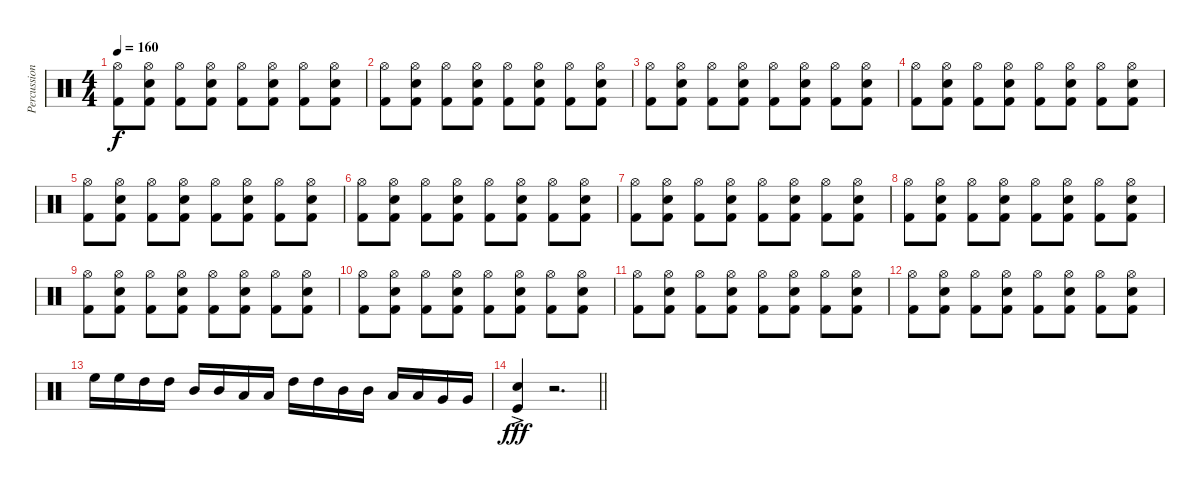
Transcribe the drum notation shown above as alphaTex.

\track ("Percussioni" "Percussion") {instrument percussion}
\staff {score}
\articulation defaults
\ts (4 4)
\tempo 160
\clef neutral
\ks c
("Hi-Hat (open)" "Kick (hit) 2").8{dy f} ("Hi-Hat (open)" "Snare (hit) 2" "Kick (hit) 2").8 ("Hi-Hat (open)" "Kick (hit) 2").8 ("Hi-Hat (open)" "Snare (hit) 2" "Kick (hit) 2").8 ("Hi-Hat (open)" "Kick (hit) 2").8 ("Hi-Hat (open)" "Snare (hit) 2" "Kick (hit) 2").8 ("Hi-Hat (open)" "Kick (hit) 2").8 ("Hi-Hat (open)" "Snare (hit) 2" "Kick (hit) 2").8 |
("Hi-Hat (open)" "Kick (hit) 2").8 ("Hi-Hat (open)" "Snare (hit) 2" "Kick (hit) 2").8 ("Hi-Hat (open)" "Kick (hit) 2").8 ("Hi-Hat (open)" "Snare (hit) 2" "Kick (hit) 2").8 ("Hi-Hat (open)" "Kick (hit) 2").8 ("Hi-Hat (open)" "Snare (hit) 2" "Kick (hit) 2").8 ("Hi-Hat (open)" "Kick (hit) 2").8 ("Hi-Hat (open)" "Snare (hit) 2" "Kick (hit) 2").8 |
("Hi-Hat (open)" "Kick (hit) 2").8 ("Hi-Hat (open)" "Snare (hit) 2" "Kick (hit) 2").8 ("Hi-Hat (open)" "Kick (hit) 2").8 ("Hi-Hat (open)" "Snare (hit) 2" "Kick (hit) 2").8 ("Hi-Hat (open)" "Kick (hit) 2").8 ("Hi-Hat (open)" "Snare (hit) 2" "Kick (hit) 2").8 ("Hi-Hat (open)" "Kick (hit) 2").8 ("Hi-Hat (open)" "Snare (hit) 2" "Kick (hit) 2").8 |
("Hi-Hat (open)" "Kick (hit) 2").8 ("Hi-Hat (open)" "Snare (hit) 2" "Kick (hit) 2").8 ("Hi-Hat (open)" "Kick (hit) 2").8 ("Hi-Hat (open)" "Snare (hit) 2" "Kick (hit) 2").8 ("Hi-Hat (open)" "Kick (hit) 2").8 ("Hi-Hat (open)" "Snare (hit) 2" "Kick (hit) 2").8 ("Hi-Hat (open)" "Kick (hit) 2").8 ("Hi-Hat (open)" "Snare (hit) 2" "Kick (hit) 2").8 |
("Hi-Hat (open)" "Kick (hit) 2").8 ("Hi-Hat (open)" "Snare (hit) 2" "Kick (hit) 2").8 ("Hi-Hat (open)" "Kick (hit) 2").8 ("Hi-Hat (open)" "Snare (hit) 2" "Kick (hit) 2").8 ("Hi-Hat (open)" "Kick (hit) 2").8 ("Hi-Hat (open)" "Snare (hit) 2" "Kick (hit) 2").8 ("Hi-Hat (open)" "Kick (hit) 2").8 ("Hi-Hat (open)" "Snare (hit) 2" "Kick (hit) 2").8 |
("Hi-Hat (open)" "Kick (hit) 2").8 ("Hi-Hat (open)" "Snare (hit) 2" "Kick (hit) 2").8 ("Hi-Hat (open)" "Kick (hit) 2").8 ("Hi-Hat (open)" "Snare (hit) 2" "Kick (hit) 2").8 ("Hi-Hat (open)" "Kick (hit) 2").8 ("Hi-Hat (open)" "Snare (hit) 2" "Kick (hit) 2").8 ("Hi-Hat (open)" "Kick (hit) 2").8 ("Hi-Hat (open)" "Snare (hit) 2" "Kick (hit) 2").8 |
("Hi-Hat (open)" "Kick (hit) 2").8 ("Hi-Hat (open)" "Snare (hit) 2" "Kick (hit) 2").8 ("Hi-Hat (open)" "Kick (hit) 2").8 ("Hi-Hat (open)" "Snare (hit) 2" "Kick (hit) 2").8 ("Hi-Hat (open)" "Kick (hit) 2").8 ("Hi-Hat (open)" "Snare (hit) 2" "Kick (hit) 2").8 ("Hi-Hat (open)" "Kick (hit) 2").8 ("Hi-Hat (open)" "Snare (hit) 2" "Kick (hit) 2").8 |
("Hi-Hat (open)" "Kick (hit) 2").8 ("Hi-Hat (open)" "Snare (hit) 2" "Kick (hit) 2").8 ("Hi-Hat (open)" "Kick (hit) 2").8 ("Hi-Hat (open)" "Snare (hit) 2" "Kick (hit) 2").8 ("Hi-Hat (open)" "Kick (hit) 2").8 ("Hi-Hat (open)" "Snare (hit) 2" "Kick (hit) 2").8 ("Hi-Hat (open)" "Kick (hit) 2").8 ("Hi-Hat (open)" "Snare (hit) 2" "Kick (hit) 2").8 |
("Hi-Hat (open)" "Kick (hit) 2").8 ("Hi-Hat (open)" "Snare (hit) 2" "Kick (hit) 2").8 ("Hi-Hat (open)" "Kick (hit) 2").8 ("Hi-Hat (open)" "Snare (hit) 2" "Kick (hit) 2").8 ("Hi-Hat (open)" "Kick (hit) 2").8 ("Hi-Hat (open)" "Snare (hit) 2" "Kick (hit) 2").8 ("Hi-Hat (open)" "Kick (hit) 2").8 ("Hi-Hat (open)" "Snare (hit) 2" "Kick (hit) 2").8 |
("Hi-Hat (open)" "Kick (hit) 2").8 ("Hi-Hat (open)" "Snare (hit) 2" "Kick (hit) 2").8 ("Hi-Hat (open)" "Kick (hit) 2").8 ("Hi-Hat (open)" "Snare (hit) 2" "Kick (hit) 2").8 ("Hi-Hat (open)" "Kick (hit) 2").8 ("Hi-Hat (open)" "Snare (hit) 2" "Kick (hit) 2").8 ("Hi-Hat (open)" "Kick (hit) 2").8 ("Hi-Hat (open)" "Snare (hit) 2" "Kick (hit) 2").8 |
("Hi-Hat (open)" "Kick (hit) 2").8 ("Hi-Hat (open)" "Snare (hit) 2" "Kick (hit) 2").8 ("Hi-Hat (open)" "Kick (hit) 2").8 ("Hi-Hat (open)" "Snare (hit) 2" "Kick (hit) 2").8 ("Hi-Hat (open)" "Kick (hit) 2").8 ("Hi-Hat (open)" "Snare (hit) 2" "Kick (hit) 2").8 ("Hi-Hat (open)" "Kick (hit) 2").8 ("Hi-Hat (open)" "Snare (hit) 2" "Kick (hit) 2").8 |
("Hi-Hat (open)" "Kick (hit) 2").8 ("Hi-Hat (open)" "Snare (hit) 2" "Kick (hit) 2").8 ("Hi-Hat (open)" "Kick (hit) 2").8 ("Hi-Hat (open)" "Snare (hit) 2" "Kick (hit) 2").8 ("Hi-Hat (open)" "Kick (hit) 2").8 ("Hi-Hat (open)" "Snare (hit) 2" "Kick (hit) 2").8 ("Hi-Hat (open)" "Kick (hit) 2").8 ("Hi-Hat (open)" "Snare (hit) 2" "Kick (hit) 2").8 |
"High Floor Tom (hit)".16 "High Floor Tom (hit)".16 "High Tom (hit)".16 "High Tom (hit)".16 "Mid Tom (hit)".16 "Mid Tom (hit)".16 "Low Tom (hit)".16 "Low Tom (hit)".16 "High Tom (hit)".16 "High Tom (hit)".16 "Mid Tom (hit)".16 "Mid Tom (hit)".16 "Low Tom (hit)".16 "Low Tom (hit)".16 "Very Low Tom (hit)".16 "Very Low Tom (hit)".16 |
\barLineRight lightlight
("Snare (hit) 2"{ac} "Kick (hit)").4{dy fff} r.2{d}
